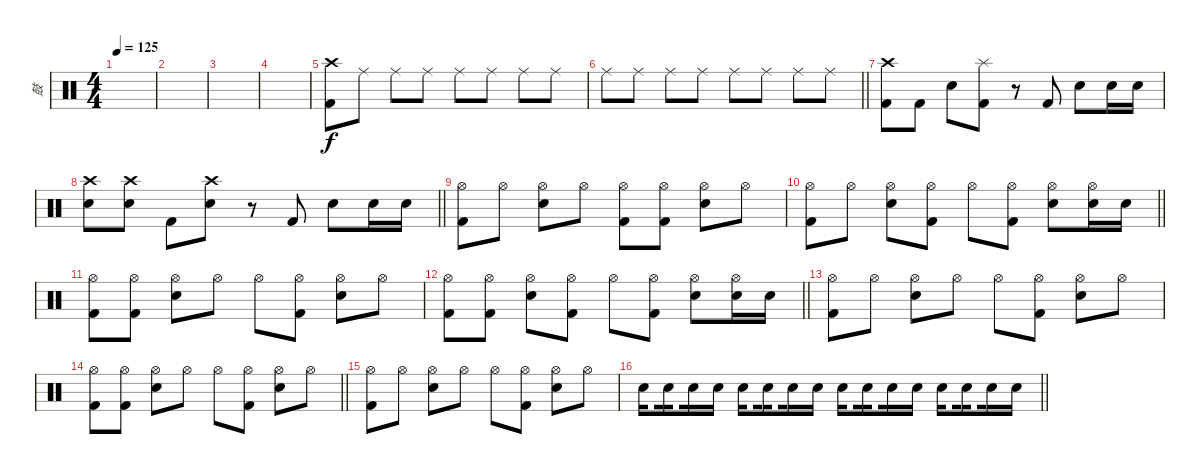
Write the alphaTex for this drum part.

\track ("鼓" "鼓") {instrument percussion}
\staff {score}
\articulation defaults
\ts (4 4)
\tempo 125
\clef neutral
\ks c
|
|
|
|
("Crash high (hit)" "Kick (hit) 2").8 "Ride (middle)".8 "Ride (middle)".8 "Ride (middle)".8 "Ride (middle)".8 "Ride (middle)".8 "Ride (middle)".8 "Ride (middle)".8 |
\barLineRight lightlight "Ride (middle)".8 "Ride (middle)".8 "Ride (middle)".8 "Ride (middle)".8 "Ride (middle)".8 "Ride (middle)".8 "Ride (middle)".8 "Ride (middle)".8
|
("Crash high (hit)" "Kick (hit) 2").8 "Kick (hit) 2".8 "Snare (hit) 2".8 ("Splash (hit)" "Kick (hit) 2").8 r.8 "Kick (hit) 2".8 "Snare (hit) 2".8 "Snare (hit) 2".16 "Snare (hit) 2".16 |
\barLineRight lightlight
("Crash high (hit)" "Snare (hit) 2").8 ("Crash high (hit)" "Snare (hit) 2").8 "Kick (hit) 2".8 ("Crash high (hit)" "Snare (hit) 2").8 r.8 "Kick (hit) 2".8 "Snare (hit) 2".8 "Snare (hit) 2".16 "Snare (hit) 2".16 |
("Hi-Hat (open)" "Kick (hit) 2").8 "Hi-Hat (open)".8 ("Hi-Hat (open)" "Snare (hit) 2").8 "Hi-Hat (open)".8 ("Hi-Hat (open)" "Kick (hit) 2").8 ("Hi-Hat (open)" "Kick (hit) 2").8 ("Hi-Hat (open)" "Snare (hit) 2").8 "Hi-Hat (open)".8 |
\barLineRight lightlight
("Hi-Hat (open)" "Kick (hit) 2").8 "Hi-Hat (open)".8 ("Hi-Hat (open)" "Snare (hit) 2").8 ("Hi-Hat (open)" "Kick (hit) 2").8 "Hi-Hat (open)".8 ("Hi-Hat (open)" "Kick (hit) 2").8 ("Hi-Hat (open)" "Snare (hit) 2").8 ("Hi-Hat (open)" "Snare (hit) 2").16 "Snare (hit) 2".16 |
("Hi-Hat (open)" "Kick (hit) 2").8 ("Hi-Hat (open)" "Kick (hit) 2").8 ("Hi-Hat (open)" "Snare (hit) 2").8 "Hi-Hat (open)".8 "Hi-Hat (open)".8 ("Hi-Hat (open)" "Kick (hit) 2").8 ("Hi-Hat (open)" "Snare (hit) 2").8 "Hi-Hat (open)".8 |
\barLineRight lightlight
("Hi-Hat (open)" "Kick (hit) 2").8 ("Hi-Hat (open)" "Kick (hit) 2").8 ("Hi-Hat (open)" "Snare (hit) 2").8 ("Hi-Hat (open)" "Kick (hit) 2").8 "Hi-Hat (open)".8 ("Hi-Hat (open)" "Kick (hit) 2").8 ("Hi-Hat (open)" "Snare (hit) 2").8 ("Hi-Hat (open)" "Snare (hit) 2").16 "Snare (hit) 2".16 |
("Hi-Hat (open)" "Kick (hit) 2").8 "Hi-Hat (open)".8 ("Hi-Hat (open)" "Snare (hit) 2").8 "Hi-Hat (open)".8 "Hi-Hat (open)".8 ("Hi-Hat (open)" "Kick (hit) 2").8 ("Hi-Hat (open)" "Snare (hit) 2").8 "Hi-Hat (open)".8 |
\barLineRight lightlight
("Hi-Hat (open)" "Kick (hit) 2").8 ("Hi-Hat (open)" "Kick (hit) 2").8 ("Hi-Hat (open)" "Snare (hit) 2").8 "Hi-Hat (open)".8 "Hi-Hat (open)".8 ("Hi-Hat (open)" "Kick (hit) 2").8 ("Hi-Hat (open)" "Snare (hit) 2").8 "Hi-Hat (open)".8 |
("Hi-Hat (open)" "Kick (hit) 2").8 "Hi-Hat (open)".8 ("Hi-Hat (open)" "Snare (hit) 2").8 "Hi-Hat (open)".8 "Hi-Hat (open)".8 ("Hi-Hat (open)" "Kick (hit) 2").8 ("Hi-Hat (open)" "Snare (hit) 2").8 "Hi-Hat (open)".8 |
\barLineRight lightlight "Snare (hit) 2".16{beam splitsecondary} "Snare (hit) 2".16{beam splitsecondary} "Snare (hit) 2".16 "Snare (hit) 2".16 "Snare (hit) 2".16{beam splitsecondary} "Snare (hit) 2".16{beam splitsecondary} "Snare (hit) 2".16 "Snare (hit) 2".16 "Snare (hit) 2".16{beam splitsecondary} "Snare (hit) 2".16{beam splitsecondary} "Snare (hit) 2".16 "Snare (hit) 2".16 "Snare (hit) 2".16{beam splitsecondary} "Snare (hit) 2".16{beam splitsecondary} "Snare (hit) 2".16 "Snare (hit) 2".16
